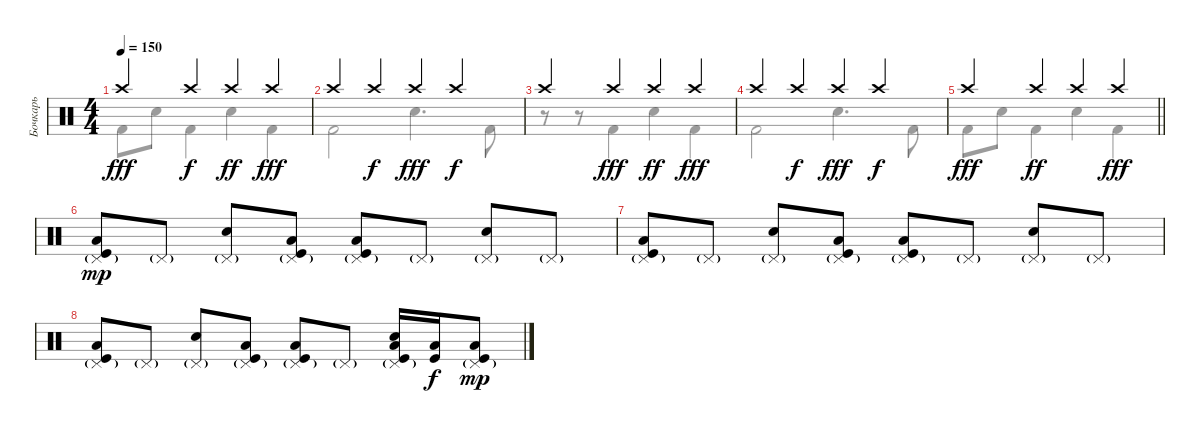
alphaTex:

\track ("Бочкарь" "Бочкарь") {instrument percussion}
\staff {score}
\articulation defaults
\voice
\ts (4 4)
\tempo 150
\clef neutral
\ks c "Crash high (hit)".4{dy fff} "Crash high (hit)".4{dy f} "Crash high (hit)".4{dy ff} "Crash high (hit)".4{dy fff}
|
"Crash high (hit)".4 "Crash high (hit)".4{dy f} "Crash high (hit)".4{dy fff} "Crash high (hit)".4{dy f} |
"Crash high (hit)".4 "Crash high (hit)".4{dy fff} "Crash high (hit)".4{dy ff} "Crash high (hit)".4{dy fff} |
"Crash high (hit)".4 "Crash high (hit)".4{dy f} "Crash high (hit)".4{dy fff} "Crash high (hit)".4{dy f} |
\barLineRight lightlight "Crash high (hit)".4{dy fff} "Crash high (hit)".4{dy ff} "Crash high (hit)".4 "Crash high (hit)".4{dy fff}
|
("Pedal Hi-Hat (hit)"{g} "Low Tom (hit)" "Kick (hit)").8{dy mp} "Pedal Hi-Hat (hit)"{g}.8 ("Pedal Hi-Hat (hit)"{g} "Electric Snare (hit)").8 ("Pedal Hi-Hat (hit)"{g} "Low Tom (hit)" "Kick (hit)").8 ("Pedal Hi-Hat (hit)"{g} "Low Tom (hit)" "Kick (hit)").8 "Pedal Hi-Hat (hit)"{g}.8 ("Pedal Hi-Hat (hit)"{g} "Electric Snare (hit)").8 "Pedal Hi-Hat (hit)"{g}.8 |
("Pedal Hi-Hat (hit)"{g} "Low Tom (hit)" "Kick (hit)").8 "Pedal Hi-Hat (hit)"{g}.8 ("Pedal Hi-Hat (hit)"{g} "Electric Snare (hit)").8 ("Pedal Hi-Hat (hit)"{g} "Low Tom (hit)" "Kick (hit)").8 ("Pedal Hi-Hat (hit)"{g} "Low Tom (hit)" "Kick (hit)").8 "Pedal Hi-Hat (hit)"{g}.8 ("Pedal Hi-Hat (hit)"{g} "Electric Snare (hit)").8 "Pedal Hi-Hat (hit)"{g}.8 |
("Pedal Hi-Hat (hit)"{g} "Low Tom (hit)" "Kick (hit)").8 "Pedal Hi-Hat (hit)"{g}.8 ("Pedal Hi-Hat (hit)"{g} "Electric Snare (hit)").8 ("Pedal Hi-Hat (hit)"{g} "Low Tom (hit)" "Kick (hit)").8 ("Pedal Hi-Hat (hit)"{g} "Low Tom (hit)" "Kick (hit)").8 "Pedal Hi-Hat (hit)"{g}.8 ("Pedal Hi-Hat (hit)"{g} "Electric Snare (hit)" "Low Tom (hit)" "Kick (hit)").16 ("Low Tom (hit)" "Kick (hit)").16{dy f} ("Pedal Hi-Hat (hit)"{g} "Low Tom (hit)" "Kick (hit)").8{dy mp} |
|
|
|
|
|
|
|
\voice
\clef neutral
\ottava regular
\simile none
\ks c "Kick (hit) 2".8{dy fff} "Snare (hit) 2".8 "Kick (hit) 2".4 "Snare (hit) 2".4 "Kick (hit) 2".4
|
"Kick (hit) 2".2 "Snare (hit) 2".4{d} "Kick (hit) 2".8 |
r.8 r.8 "Kick (hit) 2".4 "Snare (hit) 2".4 "Kick (hit) 2".4 |
"Kick (hit) 2".2 "Snare (hit) 2".4{d} "Kick (hit) 2".8 |
\barLineRight lightlight "Kick (hit) 2".8 "Snare (hit) 2".8 "Kick (hit) 2".4 "Snare (hit) 2".4 "Kick (hit) 2".4
|
|
|
|
|
|
|
|
|
|
|
